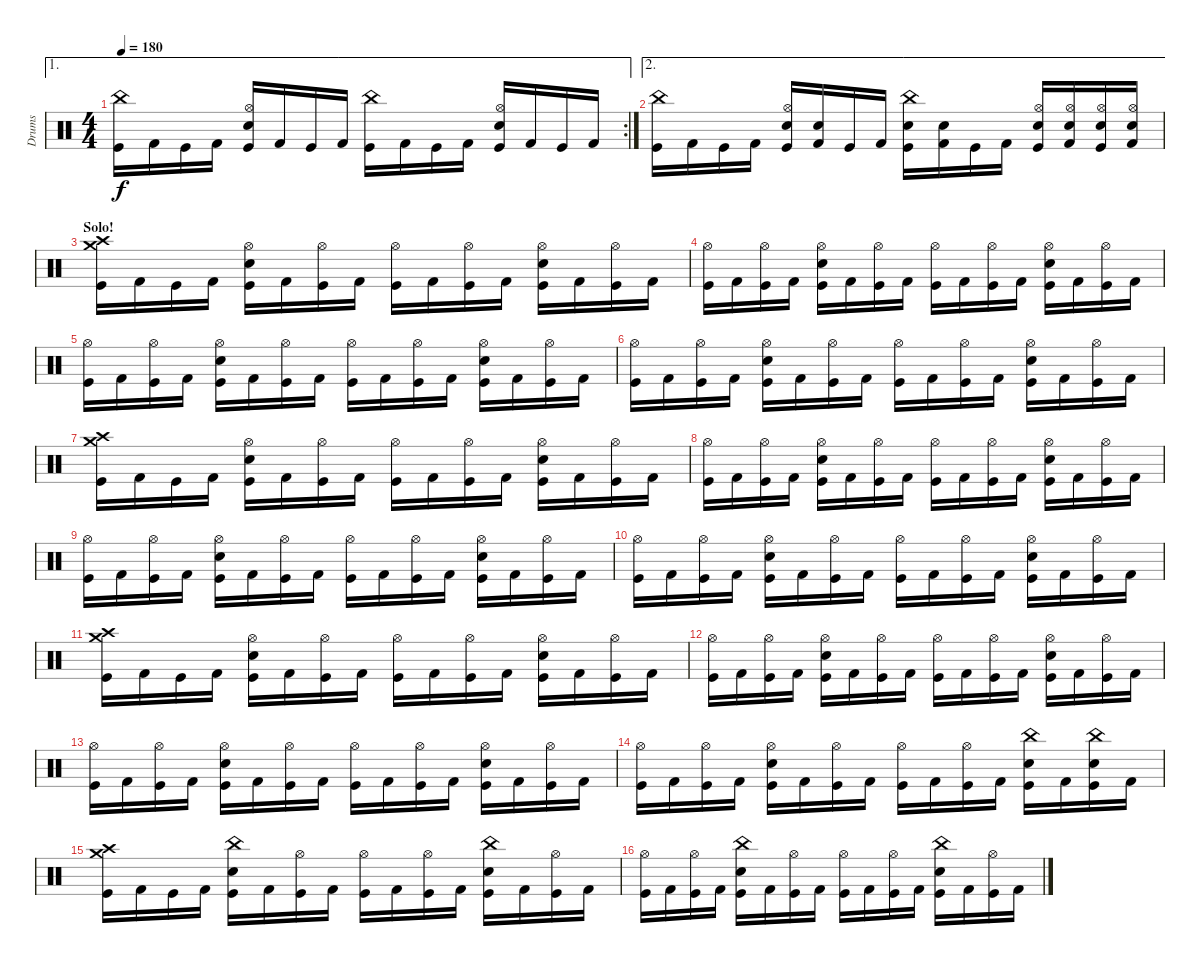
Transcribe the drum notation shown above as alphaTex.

\track ("Drums" "Drums") {instrument percussion}
\staff {score}
\articulation defaults
\ae 1
\rc 2
\ts (4 4)
\tempo 180
\clef neutral
\ks c
("China (hit)" "Kick (hit)").16{dy f} "Kick (hit) 2".16 "Kick (hit)".16 "Kick (hit) 2".16 ("Hi-Hat (open)" "Electric Snare (hit)" "Kick (hit)").16 "Kick (hit) 2".16 "Kick (hit)".16 "Kick (hit) 2".16 ("China (hit)" "Kick (hit)").16 "Kick (hit) 2".16 "Kick (hit)".16 "Kick (hit) 2".16 ("Hi-Hat (open)" "Electric Snare (hit)" "Kick (hit)").16 "Kick (hit) 2".16 "Kick (hit)".16 "Kick (hit) 2".16 |
\ae 2
("China (hit)" "Kick (hit)").16 "Kick (hit) 2".16 "Kick (hit)".16 "Kick (hit) 2".16 ("Hi-Hat (open)" "Electric Snare (hit)" "Kick (hit)").16 ("Electric Snare (hit)" "Kick (hit) 2").16 "Kick (hit)".16 "Kick (hit) 2".16 ("China (hit)" "Electric Snare (hit)" "Kick (hit)").16 ("Electric Snare (hit)" "Kick (hit) 2").16 "Kick (hit)".16 "Kick (hit) 2".16 ("Hi-Hat (open)" "Electric Snare (hit)" "Kick (hit)").16 ("Hi-Hat (open)" "Electric Snare (hit)" "Kick (hit) 2").16 ("Hi-Hat (open)" "Electric Snare (hit)" "Kick (hit)").16 ("Hi-Hat (open)" "Electric Snare (hit)" "Kick (hit) 2").16 |
\section ("" "Solo!")
("Crash medium (hit)" "Crash high (hit)" "Kick (hit)").16 "Kick (hit) 2".16 "Kick (hit)".16 "Kick (hit) 2".16 ("Hi-Hat (open)" "Electric Snare (hit)" "Kick (hit)").16 "Kick (hit) 2".16 ("Hi-Hat (open)" "Kick (hit)").16 "Kick (hit) 2".16 ("Hi-Hat (open)" "Kick (hit)").16 "Kick (hit) 2".16 ("Hi-Hat (open)" "Kick (hit)").16 "Kick (hit) 2".16 ("Hi-Hat (open)" "Electric Snare (hit)" "Kick (hit)").16 "Kick (hit) 2".16 ("Hi-Hat (open)" "Kick (hit)").16 "Kick (hit) 2".16 |
("Hi-Hat (open)" "Kick (hit)").16 "Kick (hit) 2".16 ("Hi-Hat (open)" "Kick (hit)").16 "Kick (hit) 2".16 ("Hi-Hat (open)" "Electric Snare (hit)" "Kick (hit)").16 "Kick (hit) 2".16 ("Hi-Hat (open)" "Kick (hit)").16 "Kick (hit) 2".16 ("Hi-Hat (open)" "Kick (hit)").16 "Kick (hit) 2".16 ("Hi-Hat (open)" "Kick (hit)").16 "Kick (hit) 2".16 ("Hi-Hat (open)" "Electric Snare (hit)" "Kick (hit)").16 "Kick (hit) 2".16 ("Hi-Hat (open)" "Kick (hit)").16 "Kick (hit) 2".16 |
("Hi-Hat (open)" "Kick (hit)").16 "Kick (hit) 2".16 ("Hi-Hat (open)" "Kick (hit)").16 "Kick (hit) 2".16 ("Hi-Hat (open)" "Electric Snare (hit)" "Kick (hit)").16 "Kick (hit) 2".16 ("Hi-Hat (open)" "Kick (hit)").16 "Kick (hit) 2".16 ("Hi-Hat (open)" "Kick (hit)").16 "Kick (hit) 2".16 ("Hi-Hat (open)" "Kick (hit)").16 "Kick (hit) 2".16 ("Hi-Hat (open)" "Electric Snare (hit)" "Kick (hit)").16 "Kick (hit) 2".16 ("Hi-Hat (open)" "Kick (hit)").16 "Kick (hit) 2".16 |
("Hi-Hat (open)" "Kick (hit)").16 "Kick (hit) 2".16 ("Hi-Hat (open)" "Kick (hit)").16 "Kick (hit) 2".16 ("Hi-Hat (open)" "Electric Snare (hit)" "Kick (hit)").16 "Kick (hit) 2".16 ("Hi-Hat (open)" "Kick (hit)").16 "Kick (hit) 2".16 ("Hi-Hat (open)" "Kick (hit)").16 "Kick (hit) 2".16 ("Hi-Hat (open)" "Kick (hit)").16 "Kick (hit) 2".16 ("Hi-Hat (open)" "Electric Snare (hit)" "Kick (hit)").16 "Kick (hit) 2".16 ("Hi-Hat (open)" "Kick (hit)").16 "Kick (hit) 2".16 |
("Crash medium (hit)" "Crash high (hit)" "Kick (hit)").16 "Kick (hit) 2".16 "Kick (hit)".16 "Kick (hit) 2".16 ("Hi-Hat (open)" "Electric Snare (hit)" "Kick (hit)").16 "Kick (hit) 2".16 ("Hi-Hat (open)" "Kick (hit)").16 "Kick (hit) 2".16 ("Hi-Hat (open)" "Kick (hit)").16 "Kick (hit) 2".16 ("Hi-Hat (open)" "Kick (hit)").16 "Kick (hit) 2".16 ("Hi-Hat (open)" "Electric Snare (hit)" "Kick (hit)").16 "Kick (hit) 2".16 ("Hi-Hat (open)" "Kick (hit)").16 "Kick (hit) 2".16 |
("Hi-Hat (open)" "Kick (hit)").16 "Kick (hit) 2".16 ("Hi-Hat (open)" "Kick (hit)").16 "Kick (hit) 2".16 ("Hi-Hat (open)" "Electric Snare (hit)" "Kick (hit)").16 "Kick (hit) 2".16 ("Hi-Hat (open)" "Kick (hit)").16 "Kick (hit) 2".16 ("Hi-Hat (open)" "Kick (hit)").16 "Kick (hit) 2".16 ("Hi-Hat (open)" "Kick (hit)").16 "Kick (hit) 2".16 ("Hi-Hat (open)" "Electric Snare (hit)" "Kick (hit)").16 "Kick (hit) 2".16 ("Hi-Hat (open)" "Kick (hit)").16 "Kick (hit) 2".16 |
("Hi-Hat (open)" "Kick (hit)").16 "Kick (hit) 2".16 ("Hi-Hat (open)" "Kick (hit)").16 "Kick (hit) 2".16 ("Hi-Hat (open)" "Electric Snare (hit)" "Kick (hit)").16 "Kick (hit) 2".16 ("Hi-Hat (open)" "Kick (hit)").16 "Kick (hit) 2".16 ("Hi-Hat (open)" "Kick (hit)").16 "Kick (hit) 2".16 ("Hi-Hat (open)" "Kick (hit)").16 "Kick (hit) 2".16 ("Hi-Hat (open)" "Electric Snare (hit)" "Kick (hit)").16 "Kick (hit) 2".16 ("Hi-Hat (open)" "Kick (hit)").16 "Kick (hit) 2".16 |
("Hi-Hat (open)" "Kick (hit)").16 "Kick (hit) 2".16 ("Hi-Hat (open)" "Kick (hit)").16 "Kick (hit) 2".16 ("Hi-Hat (open)" "Electric Snare (hit)" "Kick (hit)").16 "Kick (hit) 2".16 ("Hi-Hat (open)" "Kick (hit)").16 "Kick (hit) 2".16 ("Hi-Hat (open)" "Kick (hit)").16 "Kick (hit) 2".16 ("Hi-Hat (open)" "Kick (hit)").16 "Kick (hit) 2".16 ("Hi-Hat (open)" "Electric Snare (hit)" "Kick (hit)").16 "Kick (hit) 2".16 ("Hi-Hat (open)" "Kick (hit)").16 "Kick (hit) 2".16 |
("Crash medium (hit)" "Crash high (hit)" "Kick (hit)").16 "Kick (hit) 2".16 "Kick (hit)".16 "Kick (hit) 2".16 ("Hi-Hat (open)" "Electric Snare (hit)" "Kick (hit)").16 "Kick (hit) 2".16 ("Hi-Hat (open)" "Kick (hit)").16 "Kick (hit) 2".16 ("Hi-Hat (open)" "Kick (hit)").16 "Kick (hit) 2".16 ("Hi-Hat (open)" "Kick (hit)").16 "Kick (hit) 2".16 ("Hi-Hat (open)" "Electric Snare (hit)" "Kick (hit)").16 "Kick (hit) 2".16 ("Hi-Hat (open)" "Kick (hit)").16 "Kick (hit) 2".16 |
("Hi-Hat (open)" "Kick (hit)").16 "Kick (hit) 2".16 ("Hi-Hat (open)" "Kick (hit)").16 "Kick (hit) 2".16 ("Hi-Hat (open)" "Electric Snare (hit)" "Kick (hit)").16 "Kick (hit) 2".16 ("Hi-Hat (open)" "Kick (hit)").16 "Kick (hit) 2".16 ("Hi-Hat (open)" "Kick (hit)").16 "Kick (hit) 2".16 ("Hi-Hat (open)" "Kick (hit)").16 "Kick (hit) 2".16 ("Hi-Hat (open)" "Electric Snare (hit)" "Kick (hit)").16 "Kick (hit) 2".16 ("Hi-Hat (open)" "Kick (hit)").16 "Kick (hit) 2".16 |
("Hi-Hat (open)" "Kick (hit)").16 "Kick (hit) 2".16 ("Hi-Hat (open)" "Kick (hit)").16 "Kick (hit) 2".16 ("Hi-Hat (open)" "Electric Snare (hit)" "Kick (hit)").16 "Kick (hit) 2".16 ("Hi-Hat (open)" "Kick (hit)").16 "Kick (hit) 2".16 ("Hi-Hat (open)" "Kick (hit)").16 "Kick (hit) 2".16 ("Hi-Hat (open)" "Kick (hit)").16 "Kick (hit) 2".16 ("Hi-Hat (open)" "Electric Snare (hit)" "Kick (hit)").16 "Kick (hit) 2".16 ("Hi-Hat (open)" "Kick (hit)").16 "Kick (hit) 2".16 |
("Hi-Hat (open)" "Kick (hit)").16 "Kick (hit) 2".16 ("Hi-Hat (open)" "Kick (hit)").16 "Kick (hit) 2".16 ("Hi-Hat (open)" "Electric Snare (hit)" "Kick (hit)").16 "Kick (hit) 2".16 ("Hi-Hat (open)" "Kick (hit)").16 "Kick (hit) 2".16 ("Hi-Hat (open)" "Kick (hit)").16 "Kick (hit) 2".16 ("Hi-Hat (open)" "Kick (hit)").16 "Kick (hit) 2".16 ("China (hit)" "Electric Snare (hit)" "Kick (hit)").16 "Kick (hit) 2".16 ("China (hit)" "Electric Snare (hit)" "Kick (hit)").16 "Kick (hit) 2".16 |
("Crash medium (hit)" "Crash high (hit)" "Kick (hit)").16 "Kick (hit) 2".16 "Kick (hit)".16 "Kick (hit) 2".16 ("China (hit)" "Electric Snare (hit)" "Kick (hit)").16 "Kick (hit) 2".16 ("Hi-Hat (open)" "Kick (hit)").16 "Kick (hit) 2".16 ("Hi-Hat (open)" "Kick (hit)").16 "Kick (hit) 2".16 ("Hi-Hat (open)" "Kick (hit)").16 "Kick (hit) 2".16 ("China (hit)" "Electric Snare (hit)" "Kick (hit)").16 "Kick (hit) 2".16 ("Hi-Hat (open)" "Kick (hit)").16 "Kick (hit) 2".16 |
("Hi-Hat (open)" "Kick (hit)").16 "Kick (hit) 2".16 ("Hi-Hat (open)" "Kick (hit)").16 "Kick (hit) 2".16 ("China (hit)" "Electric Snare (hit)" "Kick (hit)").16 "Kick (hit) 2".16 ("Hi-Hat (open)" "Kick (hit)").16 "Kick (hit) 2".16 ("Hi-Hat (open)" "Kick (hit)").16 "Kick (hit) 2".16 ("Hi-Hat (open)" "Kick (hit)").16 "Kick (hit) 2".16 ("China (hit)" "Electric Snare (hit)" "Kick (hit)").16 "Kick (hit) 2".16 ("Hi-Hat (open)" "Kick (hit)").16 "Kick (hit) 2".16
